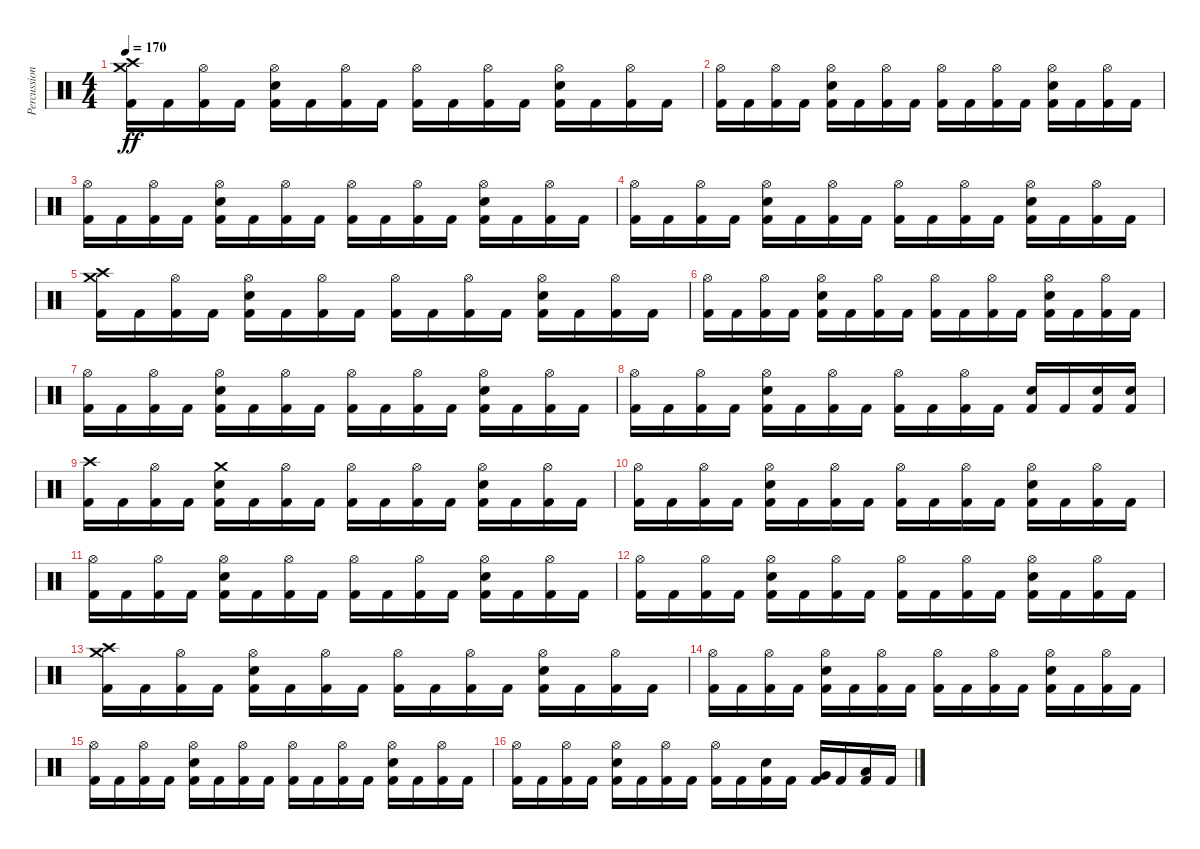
\track ("Percussion" "Percussion") {instrument percussion}
\staff {score}
\articulation defaults
\ts (4 4)
\tempo 170
\clef neutral
\ks c
("Kick (hit) 2" "Crash medium (hit)" "Crash high (hit)").16{dy ff} "Kick (hit) 2".16 ("Kick (hit) 2" "Hi-Hat (open)").16 "Kick (hit) 2".16 ("Kick (hit) 2" "Electric Snare (hit)" "Hi-Hat (open)").16 "Kick (hit) 2".16 ("Kick (hit) 2" "Hi-Hat (open)").16 "Kick (hit) 2".16 ("Kick (hit) 2" "Hi-Hat (open)").16 "Kick (hit) 2".16 ("Kick (hit) 2" "Hi-Hat (open)").16 "Kick (hit) 2".16 ("Kick (hit) 2" "Electric Snare (hit)" "Hi-Hat (open)").16 "Kick (hit) 2".16 ("Kick (hit) 2" "Hi-Hat (open)").16 "Kick (hit) 2".16 |
("Kick (hit) 2" "Hi-Hat (open)").16 "Kick (hit) 2".16 ("Kick (hit) 2" "Hi-Hat (open)").16 "Kick (hit) 2".16 ("Kick (hit) 2" "Electric Snare (hit)" "Hi-Hat (open)").16 "Kick (hit) 2".16 ("Kick (hit) 2" "Hi-Hat (open)").16 "Kick (hit) 2".16 ("Kick (hit) 2" "Hi-Hat (open)").16 "Kick (hit) 2".16 ("Kick (hit) 2" "Hi-Hat (open)").16 "Kick (hit) 2".16 ("Kick (hit) 2" "Electric Snare (hit)" "Hi-Hat (open)").16 "Kick (hit) 2".16 ("Kick (hit) 2" "Hi-Hat (open)").16 "Kick (hit) 2".16 |
("Kick (hit) 2" "Hi-Hat (open)").16 "Kick (hit) 2".16 ("Kick (hit) 2" "Hi-Hat (open)").16 "Kick (hit) 2".16 ("Kick (hit) 2" "Electric Snare (hit)" "Hi-Hat (open)").16 "Kick (hit) 2".16 ("Kick (hit) 2" "Hi-Hat (open)").16 "Kick (hit) 2".16 ("Kick (hit) 2" "Hi-Hat (open)").16 "Kick (hit) 2".16 ("Kick (hit) 2" "Hi-Hat (open)").16 "Kick (hit) 2".16 ("Kick (hit) 2" "Electric Snare (hit)" "Hi-Hat (open)").16 "Kick (hit) 2".16 ("Kick (hit) 2" "Hi-Hat (open)").16 "Kick (hit) 2".16 |
("Kick (hit) 2" "Hi-Hat (open)").16 "Kick (hit) 2".16 ("Kick (hit) 2" "Hi-Hat (open)").16 "Kick (hit) 2".16 ("Kick (hit) 2" "Electric Snare (hit)" "Hi-Hat (open)").16 "Kick (hit) 2".16 ("Kick (hit) 2" "Hi-Hat (open)").16 "Kick (hit) 2".16 ("Kick (hit) 2" "Hi-Hat (open)").16 "Kick (hit) 2".16 ("Kick (hit) 2" "Hi-Hat (open)").16 "Kick (hit) 2".16 ("Kick (hit) 2" "Electric Snare (hit)" "Hi-Hat (open)").16 "Kick (hit) 2".16 ("Kick (hit) 2" "Hi-Hat (open)").16 "Kick (hit) 2".16 |
("Kick (hit) 2" "Crash medium (hit)" "Crash high (hit)").16 "Kick (hit) 2".16 ("Kick (hit) 2" "Hi-Hat (open)").16 "Kick (hit) 2".16 ("Kick (hit) 2" "Electric Snare (hit)" "Hi-Hat (open)").16 "Kick (hit) 2".16 ("Kick (hit) 2" "Hi-Hat (open)").16 "Kick (hit) 2".16 ("Kick (hit) 2" "Hi-Hat (open)").16 "Kick (hit) 2".16 ("Kick (hit) 2" "Hi-Hat (open)").16 "Kick (hit) 2".16 ("Kick (hit) 2" "Electric Snare (hit)" "Hi-Hat (open)").16 "Kick (hit) 2".16 ("Kick (hit) 2" "Hi-Hat (open)").16 "Kick (hit) 2".16 |
("Kick (hit) 2" "Hi-Hat (open)").16 "Kick (hit) 2".16 ("Kick (hit) 2" "Hi-Hat (open)").16 "Kick (hit) 2".16 ("Kick (hit) 2" "Electric Snare (hit)" "Hi-Hat (open)").16 "Kick (hit) 2".16 ("Kick (hit) 2" "Hi-Hat (open)").16 "Kick (hit) 2".16 ("Kick (hit) 2" "Hi-Hat (open)").16 "Kick (hit) 2".16 ("Kick (hit) 2" "Hi-Hat (open)").16 "Kick (hit) 2".16 ("Kick (hit) 2" "Electric Snare (hit)" "Hi-Hat (open)").16 "Kick (hit) 2".16 ("Kick (hit) 2" "Hi-Hat (open)").16 "Kick (hit) 2".16 |
("Kick (hit) 2" "Hi-Hat (open)").16 "Kick (hit) 2".16 ("Kick (hit) 2" "Hi-Hat (open)").16 "Kick (hit) 2".16 ("Kick (hit) 2" "Electric Snare (hit)" "Hi-Hat (open)").16 "Kick (hit) 2".16 ("Kick (hit) 2" "Hi-Hat (open)").16 "Kick (hit) 2".16 ("Kick (hit) 2" "Hi-Hat (open)").16 "Kick (hit) 2".16 ("Kick (hit) 2" "Hi-Hat (open)").16 "Kick (hit) 2".16 ("Kick (hit) 2" "Electric Snare (hit)" "Hi-Hat (open)").16 "Kick (hit) 2".16 ("Kick (hit) 2" "Hi-Hat (open)").16 "Kick (hit) 2".16 |
("Kick (hit) 2" "Hi-Hat (open)").16 "Kick (hit) 2".16 ("Kick (hit) 2" "Hi-Hat (open)").16 "Kick (hit) 2".16 ("Kick (hit) 2" "Electric Snare (hit)" "Hi-Hat (open)").16 "Kick (hit) 2".16 ("Kick (hit) 2" "Hi-Hat (open)").16 "Kick (hit) 2".16 ("Kick (hit) 2" "Hi-Hat (open)").16 "Kick (hit) 2".16 ("Kick (hit) 2" "Hi-Hat (open)").16 "Kick (hit) 2".16 ("Kick (hit) 2" "Electric Snare (hit)").16 "Kick (hit) 2".16 ("Kick (hit) 2" "Electric Snare (hit)").16 ("Kick (hit) 2" "Electric Snare (hit)").16 |
("Kick (hit) 2" "Crash high (hit)").16 "Kick (hit) 2".16 ("Kick (hit) 2" "Hi-Hat (open)").16 "Kick (hit) 2".16 ("Kick (hit) 2" "Electric Snare (hit)" "Crash medium (hit)").16 "Kick (hit) 2".16 ("Kick (hit) 2" "Hi-Hat (open)").16 "Kick (hit) 2".16 ("Kick (hit) 2" "Hi-Hat (open)").16 "Kick (hit) 2".16 ("Kick (hit) 2" "Hi-Hat (open)").16 "Kick (hit) 2".16 ("Kick (hit) 2" "Electric Snare (hit)" "Hi-Hat (open)").16 "Kick (hit) 2".16 ("Kick (hit) 2" "Hi-Hat (open)").16 "Kick (hit) 2".16 |
("Kick (hit) 2" "Hi-Hat (open)").16 "Kick (hit) 2".16 ("Kick (hit) 2" "Hi-Hat (open)").16 "Kick (hit) 2".16 ("Kick (hit) 2" "Electric Snare (hit)" "Hi-Hat (open)").16 "Kick (hit) 2".16 ("Kick (hit) 2" "Hi-Hat (open)").16 "Kick (hit) 2".16 ("Kick (hit) 2" "Hi-Hat (open)").16 "Kick (hit) 2".16 ("Kick (hit) 2" "Hi-Hat (open)").16 "Kick (hit) 2".16 ("Kick (hit) 2" "Electric Snare (hit)" "Hi-Hat (open)").16 "Kick (hit) 2".16 ("Kick (hit) 2" "Hi-Hat (open)").16 "Kick (hit) 2".16 |
("Kick (hit) 2" "Hi-Hat (open)").16 "Kick (hit) 2".16 ("Kick (hit) 2" "Hi-Hat (open)").16 "Kick (hit) 2".16 ("Kick (hit) 2" "Electric Snare (hit)" "Hi-Hat (open)").16 "Kick (hit) 2".16 ("Kick (hit) 2" "Hi-Hat (open)").16 "Kick (hit) 2".16 ("Kick (hit) 2" "Hi-Hat (open)").16 "Kick (hit) 2".16 ("Kick (hit) 2" "Hi-Hat (open)").16 "Kick (hit) 2".16 ("Kick (hit) 2" "Electric Snare (hit)" "Hi-Hat (open)").16 "Kick (hit) 2".16 ("Kick (hit) 2" "Hi-Hat (open)").16 "Kick (hit) 2".16 |
("Kick (hit) 2" "Hi-Hat (open)").16 "Kick (hit) 2".16 ("Kick (hit) 2" "Hi-Hat (open)").16 "Kick (hit) 2".16 ("Kick (hit) 2" "Electric Snare (hit)" "Hi-Hat (open)").16 "Kick (hit) 2".16 ("Kick (hit) 2" "Hi-Hat (open)").16 "Kick (hit) 2".16 ("Kick (hit) 2" "Hi-Hat (open)").16 "Kick (hit) 2".16 ("Kick (hit) 2" "Hi-Hat (open)").16 "Kick (hit) 2".16 ("Kick (hit) 2" "Electric Snare (hit)" "Hi-Hat (open)").16 "Kick (hit) 2".16 ("Kick (hit) 2" "Hi-Hat (open)").16 "Kick (hit) 2".16 |
("Kick (hit) 2" "Crash medium (hit)" "Crash high (hit)").16 "Kick (hit) 2".16 ("Kick (hit) 2" "Hi-Hat (open)").16 "Kick (hit) 2".16 ("Kick (hit) 2" "Electric Snare (hit)" "Hi-Hat (open)").16 "Kick (hit) 2".16 ("Kick (hit) 2" "Hi-Hat (open)").16 "Kick (hit) 2".16 ("Kick (hit) 2" "Hi-Hat (open)").16 "Kick (hit) 2".16 ("Kick (hit) 2" "Hi-Hat (open)").16 "Kick (hit) 2".16 ("Kick (hit) 2" "Electric Snare (hit)" "Hi-Hat (open)").16 "Kick (hit) 2".16 ("Kick (hit) 2" "Hi-Hat (open)").16 "Kick (hit) 2".16 |
("Kick (hit) 2" "Hi-Hat (open)").16 "Kick (hit) 2".16 ("Kick (hit) 2" "Hi-Hat (open)").16 "Kick (hit) 2".16 ("Kick (hit) 2" "Electric Snare (hit)" "Hi-Hat (open)").16 "Kick (hit) 2".16 ("Kick (hit) 2" "Hi-Hat (open)").16 "Kick (hit) 2".16 ("Kick (hit) 2" "Hi-Hat (open)").16 "Kick (hit) 2".16 ("Kick (hit) 2" "Hi-Hat (open)").16 "Kick (hit) 2".16 ("Kick (hit) 2" "Electric Snare (hit)" "Hi-Hat (open)").16 "Kick (hit) 2".16 ("Kick (hit) 2" "Hi-Hat (open)").16 "Kick (hit) 2".16 |
("Kick (hit) 2" "Hi-Hat (open)").16 "Kick (hit) 2".16 ("Kick (hit) 2" "Hi-Hat (open)").16 "Kick (hit) 2".16 ("Kick (hit) 2" "Electric Snare (hit)" "Hi-Hat (open)").16 "Kick (hit) 2".16 ("Kick (hit) 2" "Hi-Hat (open)").16 "Kick (hit) 2".16 ("Kick (hit) 2" "Hi-Hat (open)").16 "Kick (hit) 2".16 ("Kick (hit) 2" "Hi-Hat (open)").16 "Kick (hit) 2".16 ("Kick (hit) 2" "Electric Snare (hit)" "Hi-Hat (open)").16 "Kick (hit) 2".16 ("Kick (hit) 2" "Hi-Hat (open)").16 "Kick (hit) 2".16 |
("Kick (hit) 2" "Hi-Hat (open)").16 "Kick (hit) 2".16 ("Kick (hit) 2" "Hi-Hat (open)").16 "Kick (hit) 2".16 ("Kick (hit) 2" "Electric Snare (hit)" "Hi-Hat (open)").16 "Kick (hit) 2".16 ("Kick (hit) 2" "Hi-Hat (open)").16 "Kick (hit) 2".16 ("Kick (hit) 2" "Hi-Hat (open)").16 "Kick (hit) 2".16 ("Kick (hit) 2" "Electric Snare (hit)").16 "Kick (hit) 2".16 ("Kick (hit) 2" "Very Low Tom (hit)").16 "Kick (hit) 2".16 ("Kick (hit) 2" "Low Floor Tom (hit)").16 "Kick (hit) 2".16
